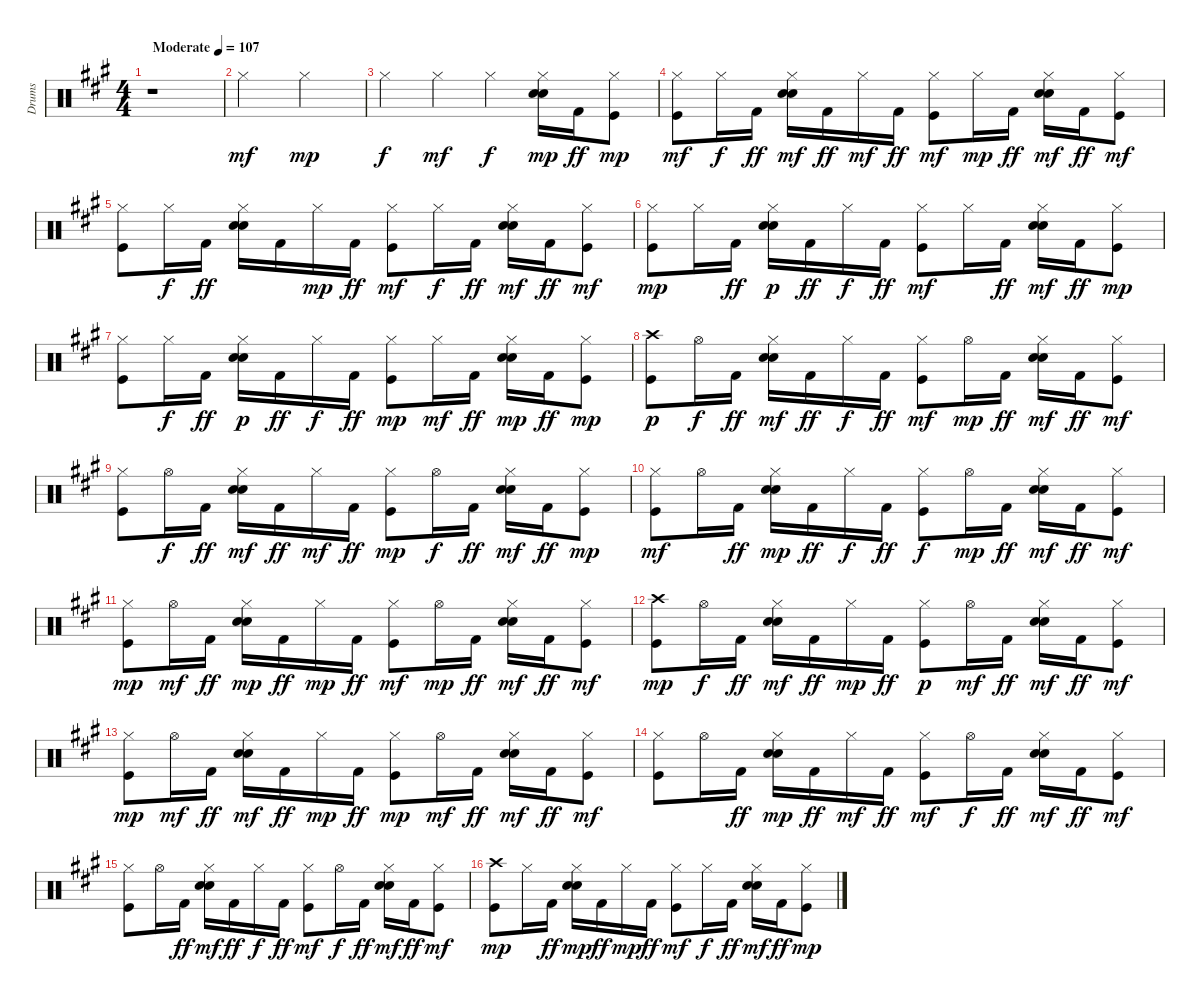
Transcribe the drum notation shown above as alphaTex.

\track ("Drums" "Drums") {instrument percussion}
\staff {score}
\articulation defaults
\ts (4 4)
\tempo (107 "Moderate")
\clef neutral
\ks a
r.1{dy mf} |
"Hi-Hat (closed)".2 "Hi-Hat (closed)".2{dy mp} |
"Hi-Hat (closed)".4{dy f} "Hi-Hat (closed)".4{dy mf} "Hi-Hat (closed)".4{dy f} ("Snare (hit) 2" "Hand Clap (hit)" "Hi-Hat (closed)").16{dy mp} "Kick (hit) 2".16{dy ff} ("Kick (hit)" "Hi-Hat (closed)").8{dy mp} |
("Kick (hit)" "Hi-Hat (closed)").8{dy mf} "Hi-Hat (closed)".16{dy f} "Kick (hit) 2".16{dy ff} ("Snare (hit) 2" "Hand Clap (hit)" "Hi-Hat (closed)").16{dy mf} "Kick (hit) 2".16{dy ff} "Hi-Hat (closed)".16{dy mf} "Kick (hit) 2".16{dy ff} ("Kick (hit)" "Hi-Hat (closed)").8{dy mf} "Hi-Hat (closed)".16{dy mp} "Kick (hit) 2".16{dy ff} ("Snare (hit) 2" "Hand Clap (hit)" "Hi-Hat (closed)").16{dy mf} "Kick (hit) 2".16{dy ff} ("Kick (hit)" "Hi-Hat (closed)").8{dy mf} |
("Kick (hit)" "Hi-Hat (closed)").8 "Hi-Hat (closed)".16{dy f} "Kick (hit) 2".16{dy ff} ("Snare (hit) 2" "Hand Clap (hit)" "Hi-Hat (closed)").16 "Kick (hit) 2".16 "Hi-Hat (closed)".16{dy mp} "Kick (hit) 2".16{dy ff} ("Kick (hit)" "Hi-Hat (closed)").8{dy mf} "Hi-Hat (closed)".16{dy f} "Kick (hit) 2".16{dy ff} ("Snare (hit) 2" "Hand Clap (hit)" "Hi-Hat (closed)").16{dy mf} "Kick (hit) 2".16{dy ff} ("Kick (hit)" "Hi-Hat (closed)").8{dy mf} |
("Kick (hit)" "Hi-Hat (closed)").8{dy mp} "Hi-Hat (closed)".16 "Kick (hit) 2".16{dy ff} ("Snare (hit) 2" "Hand Clap (hit)" "Hi-Hat (closed)").16{dy p} "Kick (hit) 2".16{dy ff} "Hi-Hat (closed)".16{dy f} "Kick (hit) 2".16{dy ff} ("Kick (hit)" "Hi-Hat (closed)").8{dy mf} "Hi-Hat (closed)".16 "Kick (hit) 2".16{dy ff} ("Snare (hit) 2" "Hand Clap (hit)" "Hi-Hat (closed)").16{dy mf} "Kick (hit) 2".16{dy ff} ("Kick (hit)" "Hi-Hat (closed)").8{dy mp} |
("Kick (hit)" "Hi-Hat (closed)").8 "Hi-Hat (closed)".16{dy f} "Kick (hit) 2".16{dy ff} ("Snare (hit) 2" "Hand Clap (hit)" "Hi-Hat (closed)").16{dy p} "Kick (hit) 2".16{dy ff} "Hi-Hat (closed)".16{dy f} "Kick (hit) 2".16{dy ff} ("Kick (hit)" "Hi-Hat (closed)").8{dy mp} "Hi-Hat (closed)".16{dy mf} "Kick (hit) 2".16{dy ff} ("Snare (hit) 2" "Hand Clap (hit)" "Hi-Hat (closed)").16{dy mp} "Kick (hit) 2".16{dy ff} ("Kick (hit)" "Hi-Hat (closed)").8{dy mp} |
("Kick (hit)" "Crash high (hit)").8{dy p} "Hi-Hat (open)".16{dy f} "Kick (hit) 2".16{dy ff} ("Snare (hit) 2" "Hand Clap (hit)" "Hi-Hat (closed)").16{dy mf} "Kick (hit) 2".16{dy ff} "Hi-Hat (closed)".16{dy f} "Kick (hit) 2".16{dy ff} ("Kick (hit)" "Hi-Hat (closed)").8{dy mf} "Hi-Hat (open)".16{dy mp} "Kick (hit) 2".16{dy ff} ("Snare (hit) 2" "Hand Clap (hit)" "Hi-Hat (closed)").16{dy mf} "Kick (hit) 2".16{dy ff} ("Kick (hit)" "Hi-Hat (closed)").8{dy mf} |
("Kick (hit)" "Hi-Hat (closed)").8 "Hi-Hat (open)".16{dy f} "Kick (hit) 2".16{dy ff} ("Snare (hit) 2" "Hand Clap (hit)" "Hi-Hat (closed)").16{dy mf} "Kick (hit) 2".16{dy ff} "Hi-Hat (closed)".16{dy mf} "Kick (hit) 2".16{dy ff} ("Kick (hit)" "Hi-Hat (closed)").8{dy mp} "Hi-Hat (open)".16{dy f} "Kick (hit) 2".16{dy ff} ("Snare (hit) 2" "Hand Clap (hit)" "Hi-Hat (closed)").16{dy mf} "Kick (hit) 2".16{dy ff} ("Kick (hit)" "Hi-Hat (closed)").8{dy mp} |
("Kick (hit)" "Hi-Hat (closed)").8{dy mf} "Hi-Hat (open)".16 "Kick (hit) 2".16{dy ff} ("Snare (hit) 2" "Hand Clap (hit)" "Hi-Hat (closed)").16{dy mp} "Kick (hit) 2".16{dy ff} "Hi-Hat (closed)".16{dy f} "Kick (hit) 2".16{dy ff} ("Kick (hit)" "Hi-Hat (closed)").8{dy f} "Hi-Hat (open)".16{dy mp} "Kick (hit) 2".16{dy ff} ("Snare (hit) 2" "Hand Clap (hit)" "Hi-Hat (closed)").16{dy mf} "Kick (hit) 2".16{dy ff} ("Kick (hit)" "Hi-Hat (closed)").8{dy mf} |
("Kick (hit)" "Hi-Hat (closed)").8{dy mp} "Hi-Hat (open)".16{dy mf} "Kick (hit) 2".16{dy ff} ("Snare (hit) 2" "Hand Clap (hit)" "Hi-Hat (closed)").16{dy mp} "Kick (hit) 2".16{dy ff} "Hi-Hat (closed)".16{dy mp} "Kick (hit) 2".16{dy ff} ("Kick (hit)" "Hi-Hat (closed)").8{dy mf} "Hi-Hat (open)".16{dy mp} "Kick (hit) 2".16{dy ff} ("Snare (hit) 2" "Hand Clap (hit)" "Hi-Hat (closed)").16{dy mf} "Kick (hit) 2".16{dy ff} ("Kick (hit)" "Hi-Hat (closed)").8{dy mf} |
("Kick (hit)" "Crash high (hit)").8{dy mp} "Hi-Hat (open)".16{dy f} "Kick (hit) 2".16{dy ff} ("Snare (hit) 2" "Hand Clap (hit)" "Hi-Hat (closed)").16{dy mf} "Kick (hit) 2".16{dy ff} "Hi-Hat (closed)".16{dy mp} "Kick (hit) 2".16{dy ff} ("Kick (hit)" "Hi-Hat (closed)").8{dy p} "Hi-Hat (open)".16{dy mf} "Kick (hit) 2".16{dy ff} ("Snare (hit) 2" "Hand Clap (hit)" "Hi-Hat (closed)").16{dy mf} "Kick (hit) 2".16{dy ff} ("Kick (hit)" "Hi-Hat (closed)").8{dy mf} |
("Kick (hit)" "Hi-Hat (closed)").8{dy mp} "Hi-Hat (open)".16{dy mf} "Kick (hit) 2".16{dy ff} ("Snare (hit) 2" "Hand Clap (hit)" "Hi-Hat (closed)").16{dy mf} "Kick (hit) 2".16{dy ff} "Hi-Hat (closed)".16{dy mp} "Kick (hit) 2".16{dy ff} ("Kick (hit)" "Hi-Hat (closed)").8{dy mp} "Hi-Hat (open)".16{dy mf} "Kick (hit) 2".16{dy ff} ("Snare (hit) 2" "Hand Clap (hit)" "Hi-Hat (closed)").16{dy mf} "Kick (hit) 2".16{dy ff} ("Kick (hit)" "Hi-Hat (closed)").8{dy mf} |
("Kick (hit)" "Hi-Hat (closed)").8 "Hi-Hat (open)".16 "Kick (hit) 2".16{dy ff} ("Snare (hit) 2" "Hand Clap (hit)" "Hi-Hat (closed)").16{dy mp} "Kick (hit) 2".16{dy ff} "Hi-Hat (closed)".16{dy mf} "Kick (hit) 2".16{dy ff} ("Kick (hit)" "Hi-Hat (closed)").8{dy mf} "Hi-Hat (open)".16{dy f} "Kick (hit) 2".16{dy ff} ("Snare (hit) 2" "Hand Clap (hit)" "Hi-Hat (closed)").16{dy mf} "Kick (hit) 2".16{dy ff} ("Kick (hit)" "Hi-Hat (closed)").8{dy mf} |
("Kick (hit)" "Hi-Hat (closed)").8 "Hi-Hat (open)".16 "Kick (hit) 2".16{dy ff} ("Snare (hit) 2" "Hand Clap (hit)" "Hi-Hat (closed)").16{dy mf} "Kick (hit) 2".16{dy ff} "Hi-Hat (closed)".16{dy f} "Kick (hit) 2".16{dy ff} ("Kick (hit)" "Hi-Hat (closed)").8{dy mf} "Hi-Hat (open)".16{dy f} "Kick (hit) 2".16{dy ff} ("Snare (hit) 2" "Hand Clap (hit)" "Hi-Hat (closed)").16{dy mf} "Kick (hit) 2".16{dy ff} ("Kick (hit)" "Hi-Hat (closed)").8{dy mf} |
("Kick (hit)" "Crash high (hit)").8{dy mp} "Hi-Hat (closed)".16 "Kick (hit) 2".16{dy ff} ("Snare (hit) 2" "Hand Clap (hit)" "Hi-Hat (closed)").16{dy mp} "Kick (hit) 2".16{dy ff} "Hi-Hat (closed)".16{dy mp} "Kick (hit) 2".16{dy ff} ("Kick (hit)" "Hi-Hat (closed)").8{dy mf} "Hi-Hat (closed)".16{dy f} "Kick (hit) 2".16{dy ff} ("Snare (hit) 2" "Hand Clap (hit)" "Hi-Hat (closed)").16{dy mf} "Kick (hit) 2".16{dy ff} ("Kick (hit)" "Hi-Hat (closed)").8{dy mp}
